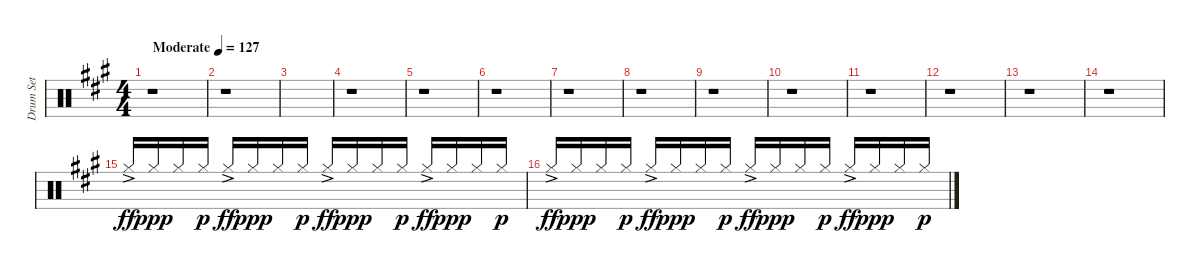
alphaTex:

\track ("Drum Set" "Drum Set") {instrument percussion}
\staff {score}
\articulation defaults
\ts (4 4)
\tempo (127 "Moderate")
\clef neutral
\ks a
r.1{dy ff} |
r.1 |
|
r.1 |
r.1 |
r.1 |
r.1 |
r.1 |
r.1 |
r.1 |
r.1 |
r.1 |
r.1 |
r.1 |
"Hi-Hat (closed)"{ac}.16{beam Up} "Hi-Hat (closed)".16{dy ppp beam Up} "Hi-Hat (closed)".16{beam Up} "Hi-Hat (closed)".16{dy p beam Up} "Hi-Hat (closed)"{ac}.16{dy ff beam Up} "Hi-Hat (closed)".16{dy ppp beam Up} "Hi-Hat (closed)".16{beam Up} "Hi-Hat (closed)".16{dy p beam Up} "Hi-Hat (closed)"{ac}.16{dy ff beam Up} "Hi-Hat (closed)".16{dy ppp beam Up} "Hi-Hat (closed)".16{beam Up} "Hi-Hat (closed)".16{dy p beam Up} "Hi-Hat (closed)"{ac}.16{dy ff beam Up} "Hi-Hat (closed)".16{dy ppp beam Up} "Hi-Hat (closed)".16{beam Up} "Hi-Hat (closed)".16{dy p beam Up} |
"Hi-Hat (closed)"{ac}.16{dy ff beam Up} "Hi-Hat (closed)".16{dy ppp beam Up} "Hi-Hat (closed)".16{beam Up} "Hi-Hat (closed)".16{dy p beam Up} "Hi-Hat (closed)"{ac}.16{dy ff beam Up} "Hi-Hat (closed)".16{dy ppp beam Up} "Hi-Hat (closed)".16{beam Up} "Hi-Hat (closed)".16{dy p beam Up} "Hi-Hat (closed)"{ac}.16{dy ff beam Up} "Hi-Hat (closed)".16{dy ppp beam Up} "Hi-Hat (closed)".16{beam Up} "Hi-Hat (closed)".16{dy p beam Up} "Hi-Hat (closed)"{ac}.16{dy ff beam Up} "Hi-Hat (closed)".16{dy ppp beam Up} "Hi-Hat (closed)".16{beam Up} "Hi-Hat (closed)".16{dy p beam Up}
